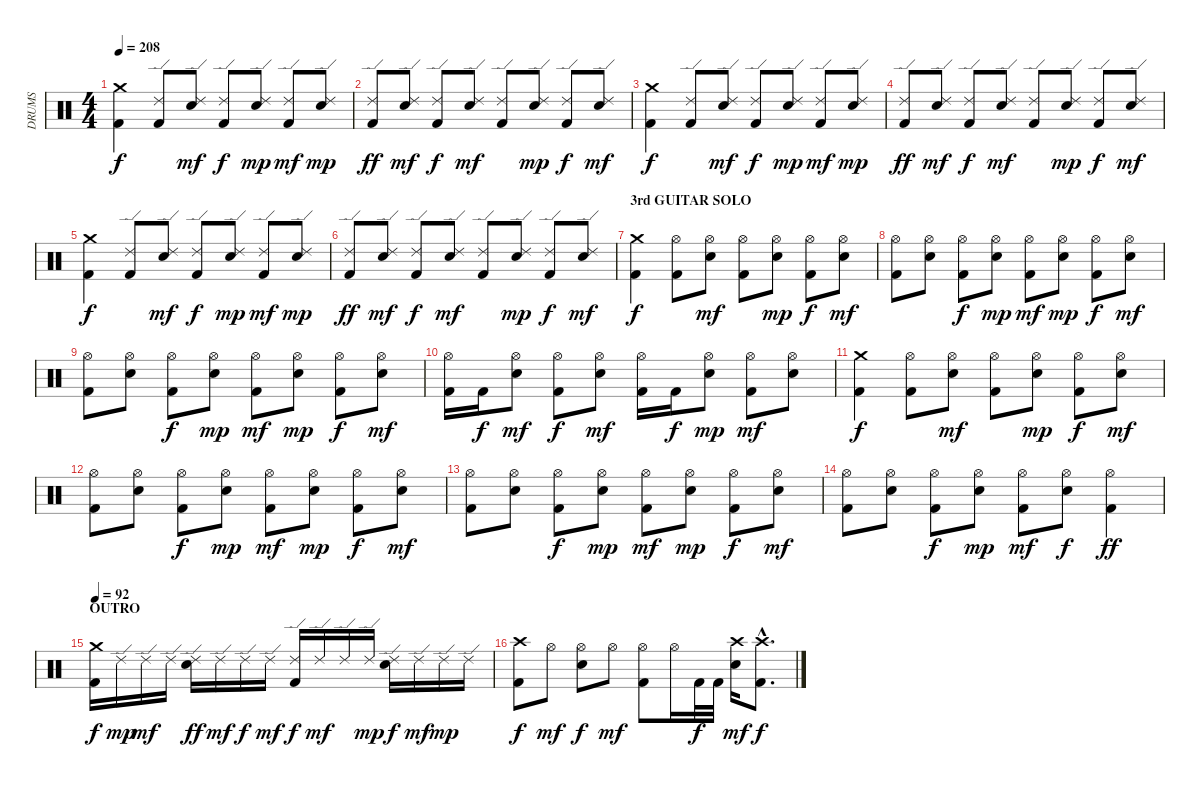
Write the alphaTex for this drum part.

\track ("DRUMS" "DRUMS") {instrument percussion}
\staff {score}
\articulation defaults
\ts (4 4)
\tempo 208
\clef neutral
\ks c
("Crash medium (hit)" "Kick (hit) 2").4{dy f} ("Ride (edge) 2" "Kick (hit) 2").8 ("Ride (edge) 2" "Electric Snare (hit)").8{dy mf} ("Ride (edge) 2" "Kick (hit) 2").8{dy f} ("Ride (edge) 2" "Electric Snare (hit)").8{dy mp} ("Ride (edge) 2" "Kick (hit) 2").8{dy mf} ("Ride (edge) 2" "Electric Snare (hit)").8{dy mp} |
("Ride (edge) 2" "Kick (hit) 2").8{dy ff} ("Ride (edge) 2" "Electric Snare (hit)").8{dy mf} ("Ride (edge) 2" "Kick (hit) 2").8{dy f} ("Ride (edge) 2" "Electric Snare (hit)").8{dy mf} ("Ride (edge) 2" "Kick (hit) 2").8 ("Ride (edge) 2" "Electric Snare (hit)").8{dy mp} ("Ride (edge) 2" "Kick (hit) 2").8{dy f} ("Ride (edge) 2" "Electric Snare (hit)").8{dy mf} |
("Crash medium (hit)" "Kick (hit) 2").4{dy f} ("Ride (edge) 2" "Kick (hit) 2").8 ("Ride (edge) 2" "Electric Snare (hit)").8{dy mf} ("Ride (edge) 2" "Kick (hit) 2").8{dy f} ("Ride (edge) 2" "Electric Snare (hit)").8{dy mp} ("Ride (edge) 2" "Kick (hit) 2").8{dy mf} ("Ride (edge) 2" "Electric Snare (hit)").8{dy mp} |
("Ride (edge) 2" "Kick (hit) 2").8{dy ff} ("Ride (edge) 2" "Electric Snare (hit)").8{dy mf} ("Ride (edge) 2" "Kick (hit) 2").8{dy f} ("Ride (edge) 2" "Electric Snare (hit)").8{dy mf} ("Ride (edge) 2" "Kick (hit) 2").8 ("Ride (edge) 2" "Electric Snare (hit)").8{dy mp} ("Ride (edge) 2" "Kick (hit) 2").8{dy f} ("Ride (edge) 2" "Electric Snare (hit)").8{dy mf} |
("Crash medium (hit)" "Kick (hit) 2").4{dy f} ("Ride (edge) 2" "Kick (hit) 2").8 ("Ride (edge) 2" "Electric Snare (hit)").8{dy mf} ("Ride (edge) 2" "Kick (hit) 2").8{dy f} ("Ride (edge) 2" "Electric Snare (hit)").8{dy mp} ("Ride (edge) 2" "Kick (hit) 2").8{dy mf} ("Ride (edge) 2" "Electric Snare (hit)").8{dy mp} |
("Ride (edge) 2" "Kick (hit) 2").8{dy ff} ("Ride (edge) 2" "Electric Snare (hit)").8{dy mf} ("Ride (edge) 2" "Kick (hit) 2").8{dy f} ("Ride (edge) 2" "Electric Snare (hit)").8{dy mf} ("Ride (edge) 2" "Kick (hit) 2").8 ("Ride (edge) 2" "Electric Snare (hit)").8{dy mp} ("Ride (edge) 2" "Kick (hit) 2").8{dy f} ("Ride (edge) 2" "Electric Snare (hit)").8{dy mf} |
\section ("" "3rd GUITAR SOLO")
("Crash medium (hit)" "Kick (hit) 2").4{dy f} ("Hi-Hat (open)" "Kick (hit) 2").8 ("Hi-Hat (open)" "Electric Snare (hit)").8{dy mf} ("Hi-Hat (open)" "Kick (hit) 2").8 ("Hi-Hat (open)" "Electric Snare (hit)").8{dy mp} ("Hi-Hat (open)" "Kick (hit) 2").8{dy f} ("Hi-Hat (open)" "Electric Snare (hit)").8{dy mf} |
("Hi-Hat (open)" "Kick (hit) 2").8 ("Hi-Hat (open)" "Electric Snare (hit)").8 ("Hi-Hat (open)" "Kick (hit) 2").8{dy f} ("Hi-Hat (open)" "Electric Snare (hit)").8{dy mp} ("Hi-Hat (open)" "Kick (hit) 2").8{dy mf} ("Hi-Hat (open)" "Electric Snare (hit)").8{dy mp} ("Hi-Hat (open)" "Kick (hit) 2").8{dy f} ("Hi-Hat (open)" "Electric Snare (hit)").8{dy mf} |
("Hi-Hat (open)" "Kick (hit) 2").8 ("Hi-Hat (open)" "Electric Snare (hit)").8 ("Hi-Hat (open)" "Kick (hit) 2").8{dy f} ("Hi-Hat (open)" "Electric Snare (hit)").8{dy mp} ("Hi-Hat (open)" "Kick (hit) 2").8{dy mf} ("Hi-Hat (open)" "Electric Snare (hit)").8{dy mp} ("Hi-Hat (open)" "Kick (hit) 2").8{dy f} ("Hi-Hat (open)" "Electric Snare (hit)").8{dy mf} |
("Hi-Hat (open)" "Kick (hit) 2").16 "Kick (hit) 2".16{dy f} ("Hi-Hat (open)" "Electric Snare (hit)").8{dy mf} ("Hi-Hat (open)" "Kick (hit) 2").8{dy f} ("Hi-Hat (open)" "Electric Snare (hit)").8{dy mf} ("Hi-Hat (open)" "Kick (hit) 2").16 "Kick (hit) 2".16{dy f} ("Hi-Hat (open)" "Electric Snare (hit)").8{dy mp} ("Hi-Hat (open)" "Kick (hit) 2").8{dy mf} ("Hi-Hat (open)" "Electric Snare (hit)").8 |
("Crash medium (hit)" "Kick (hit) 2").4{dy f} ("Hi-Hat (open)" "Kick (hit) 2").8 ("Hi-Hat (open)" "Electric Snare (hit)").8{dy mf} ("Hi-Hat (open)" "Kick (hit) 2").8 ("Hi-Hat (open)" "Electric Snare (hit)").8{dy mp} ("Hi-Hat (open)" "Kick (hit) 2").8{dy f} ("Hi-Hat (open)" "Electric Snare (hit)").8{dy mf} |
("Hi-Hat (open)" "Kick (hit) 2").8 ("Hi-Hat (open)" "Electric Snare (hit)").8 ("Hi-Hat (open)" "Kick (hit) 2").8{dy f} ("Hi-Hat (open)" "Electric Snare (hit)").8{dy mp} ("Hi-Hat (open)" "Kick (hit) 2").8{dy mf} ("Hi-Hat (open)" "Electric Snare (hit)").8{dy mp} ("Hi-Hat (open)" "Kick (hit) 2").8{dy f} ("Hi-Hat (open)" "Electric Snare (hit)").8{dy mf} |
("Hi-Hat (open)" "Kick (hit) 2").8 ("Hi-Hat (open)" "Electric Snare (hit)").8 ("Hi-Hat (open)" "Kick (hit) 2").8{dy f} ("Hi-Hat (open)" "Electric Snare (hit)").8{dy mp} ("Hi-Hat (open)" "Kick (hit) 2").8{dy mf} ("Hi-Hat (open)" "Electric Snare (hit)").8{dy mp} ("Hi-Hat (open)" "Kick (hit) 2").8{dy f} ("Hi-Hat (open)" "Electric Snare (hit)").8{dy mf} |
("Hi-Hat (open)" "Kick (hit) 2").8 ("Hi-Hat (open)" "Electric Snare (hit)").8 ("Hi-Hat (open)" "Kick (hit) 2").8{dy f} ("Hi-Hat (open)" "Electric Snare (hit)").8{dy mp} ("Hi-Hat (open)" "Kick (hit) 2").8{dy mf} ("Hi-Hat (open)" "Electric Snare (hit)").8{dy f} ("Hi-Hat (open)" "Kick (hit) 2").4{dy ff} |
\section ("" "OUTRO")
\tempo 92
("Crash medium (hit)" "Kick (hit) 2").16{dy f} "Ride (edge) 2".16{dy mp} "Ride (edge) 2".16{dy mf} "Ride (edge) 2".16 ("Ride (edge) 2" "Electric Snare (hit)").16{dy ff} "Ride (edge) 2".16{dy mf} "Ride (edge) 2".16{dy f} "Ride (edge) 2".16{dy mf} ("Ride (edge) 2" "Kick (hit) 2").16{dy f} "Ride (edge) 2".16{dy mf} "Ride (edge) 2".16 "Ride (edge) 2".16{dy mp} ("Ride (edge) 2" "Electric Snare (hit)").16{dy f} "Ride (edge) 2".16{dy mf} "Ride (edge) 2".16{dy mp} "Ride (edge) 2".16 |
("Crash high (hit)" "Kick (hit) 2").8{dy f} "Hi-Hat (open)".8{dy mf} ("Hi-Hat (open)" "Electric Snare (hit)").8{dy f} "Hi-Hat (open)".8{dy mf} ("Hi-Hat (open)" "Kick (hit) 2").8 "Hi-Hat (open)".16 "Kick (hit) 2".32{dy f} "Kick (hit) 2".32 ("Crash high (hit)" "Electric Snare (hit)").16{dy mf} ("Crash high (hit)"{hac} "Kick (hit) 2"{hac}).8{d dy f}
